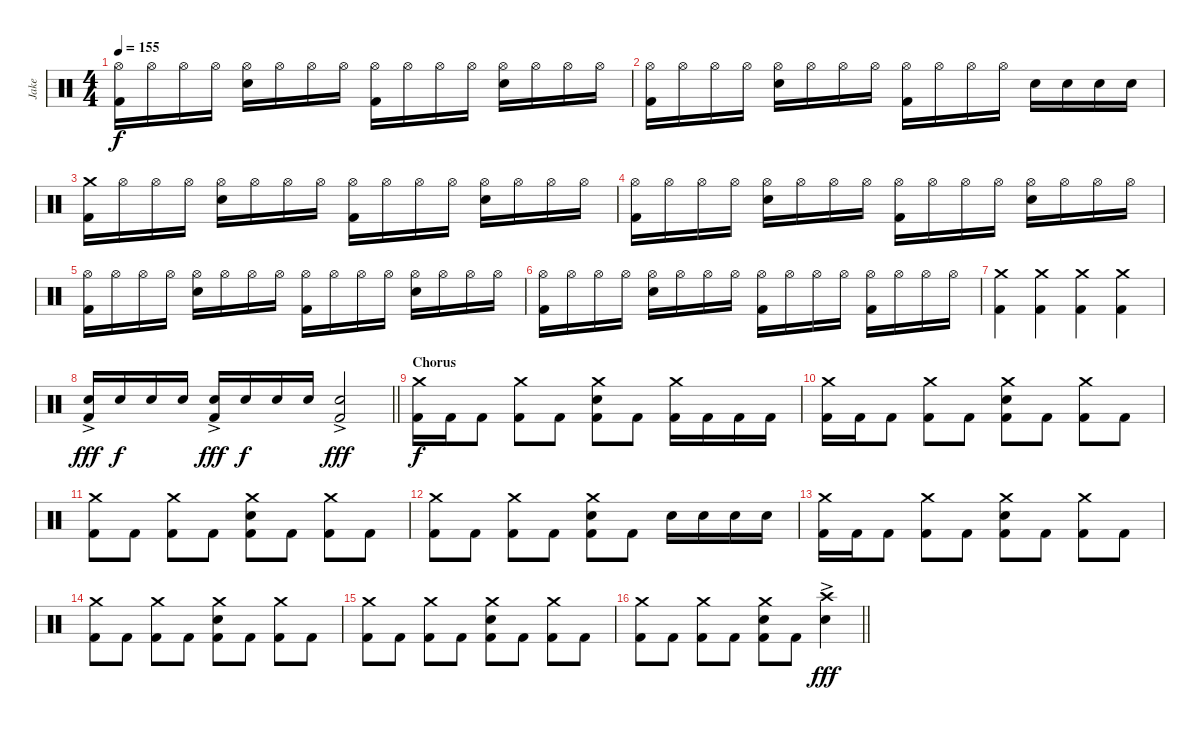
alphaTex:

\track ("Jake" "Jake") {instrument percussion}
\staff {score}
\articulation defaults
\ts (4 4)
\tempo 155
\clef neutral
\ks c
("Hi-Hat (open)" "Kick (hit) 2").16{dy f} "Hi-Hat (open)".16 "Hi-Hat (open)".16 "Hi-Hat (open)".16 ("Hi-Hat (open)" "Electric Snare (hit)").16 "Hi-Hat (open)".16 "Hi-Hat (open)".16 "Hi-Hat (open)".16 ("Hi-Hat (open)" "Kick (hit) 2").16 "Hi-Hat (open)".16 "Hi-Hat (open)".16 "Hi-Hat (open)".16 ("Hi-Hat (open)" "Electric Snare (hit)").16 "Hi-Hat (open)".16 "Hi-Hat (open)".16 "Hi-Hat (open)".16 |
("Hi-Hat (open)" "Kick (hit) 2").16 "Hi-Hat (open)".16 "Hi-Hat (open)".16 "Hi-Hat (open)".16 ("Hi-Hat (open)" "Electric Snare (hit)").16 "Hi-Hat (open)".16 "Hi-Hat (open)".16 "Hi-Hat (open)".16 ("Hi-Hat (open)" "Kick (hit) 2").16 "Hi-Hat (open)".16 "Hi-Hat (open)".16 "Hi-Hat (open)".16 "Electric Snare (hit)".16 "Electric Snare (hit)".16 "Electric Snare (hit)".16 "Electric Snare (hit)".16 |
("Crash medium (hit)" "Kick (hit) 2").16 "Hi-Hat (open)".16 "Hi-Hat (open)".16 "Hi-Hat (open)".16 ("Hi-Hat (open)" "Electric Snare (hit)").16 "Hi-Hat (open)".16 "Hi-Hat (open)".16 "Hi-Hat (open)".16 ("Hi-Hat (open)" "Kick (hit) 2").16 "Hi-Hat (open)".16 "Hi-Hat (open)".16 "Hi-Hat (open)".16 ("Hi-Hat (open)" "Electric Snare (hit)").16 "Hi-Hat (open)".16 "Hi-Hat (open)".16 "Hi-Hat (open)".16 |
("Hi-Hat (open)" "Kick (hit) 2").16 "Hi-Hat (open)".16 "Hi-Hat (open)".16 "Hi-Hat (open)".16 ("Hi-Hat (open)" "Electric Snare (hit)").16 "Hi-Hat (open)".16 "Hi-Hat (open)".16 "Hi-Hat (open)".16 ("Hi-Hat (open)" "Kick (hit) 2").16 "Hi-Hat (open)".16 "Hi-Hat (open)".16 "Hi-Hat (open)".16 ("Hi-Hat (open)" "Electric Snare (hit)").16 "Hi-Hat (open)".16 "Hi-Hat (open)".16 "Hi-Hat (open)".16 |
("Hi-Hat (open)" "Kick (hit) 2").16 "Hi-Hat (open)".16 "Hi-Hat (open)".16 "Hi-Hat (open)".16 ("Hi-Hat (open)" "Electric Snare (hit)").16 "Hi-Hat (open)".16 "Hi-Hat (open)".16 "Hi-Hat (open)".16 ("Hi-Hat (open)" "Kick (hit) 2").16 "Hi-Hat (open)".16 "Hi-Hat (open)".16 "Hi-Hat (open)".16 ("Hi-Hat (open)" "Electric Snare (hit)").16 "Hi-Hat (open)".16 "Hi-Hat (open)".16 "Hi-Hat (open)".16 |
("Hi-Hat (open)" "Kick (hit) 2").16 "Hi-Hat (open)".16 "Hi-Hat (open)".16 "Hi-Hat (open)".16 ("Hi-Hat (open)" "Electric Snare (hit)").16 "Hi-Hat (open)".16 "Hi-Hat (open)".16 "Hi-Hat (open)".16 ("Hi-Hat (open)" "Kick (hit) 2").16 "Hi-Hat (open)".16 "Hi-Hat (open)".16 "Hi-Hat (open)".16 ("Hi-Hat (open)" "Kick (hit) 2").16 "Hi-Hat (open)".16 "Hi-Hat (open)".16 "Hi-Hat (open)".16 |
("Crash medium (hit)" "Kick (hit) 2").4 ("Crash medium (hit)" "Kick (hit) 2").4 ("Crash medium (hit)" "Kick (hit) 2").4 ("Crash medium (hit)" "Kick (hit) 2").4 |
\barLineRight lightlight
("Electric Snare (hit)"{ac} "Kick (hit) 2").16{dy fff} "Electric Snare (hit)".16{dy f} "Electric Snare (hit)".16 "Electric Snare (hit)".16 ("Electric Snare (hit)"{ac} "Kick (hit) 2").16{dy fff} "Electric Snare (hit)".16{dy f} "Electric Snare (hit)".16 "Electric Snare (hit)".16 ("Electric Snare (hit)"{ac} "Kick (hit) 2").2{dy fff} |
\section ("" "Chorus")
("Crash medium (hit)" "Kick (hit) 2").16{dy f} "Kick (hit) 2".16 "Kick (hit) 2".8 ("Crash medium (hit)" "Kick (hit) 2").8 "Kick (hit) 2".8 ("Crash medium (hit)" "Electric Snare (hit)" "Kick (hit) 2").8 "Kick (hit) 2".8 ("Crash medium (hit)" "Kick (hit) 2").16 "Kick (hit) 2".16 "Kick (hit) 2".16 "Kick (hit) 2".16 |
("Crash medium (hit)" "Kick (hit) 2").16 "Kick (hit) 2".16 "Kick (hit) 2".8 ("Crash medium (hit)" "Kick (hit) 2").8 "Kick (hit) 2".8 ("Crash medium (hit)" "Electric Snare (hit)" "Kick (hit) 2").8 "Kick (hit) 2".8 ("Crash medium (hit)" "Kick (hit) 2").8 "Kick (hit) 2".8 |
("Crash medium (hit)" "Kick (hit) 2").8 "Kick (hit) 2".8 ("Crash medium (hit)" "Kick (hit) 2").8 "Kick (hit) 2".8 ("Crash medium (hit)" "Electric Snare (hit)" "Kick (hit) 2").8 "Kick (hit) 2".8 ("Crash medium (hit)" "Kick (hit) 2").8 "Kick (hit) 2".8 |
("Crash medium (hit)" "Kick (hit) 2").8 "Kick (hit) 2".8 ("Crash medium (hit)" "Kick (hit) 2").8 "Kick (hit) 2".8 ("Crash medium (hit)" "Electric Snare (hit)" "Kick (hit) 2").8 "Kick (hit) 2".8 "Electric Snare (hit)".16 "Electric Snare (hit)".16 "Electric Snare (hit)".16 "Electric Snare (hit)".16 |
("Crash medium (hit)" "Kick (hit) 2").16 "Kick (hit) 2".16 "Kick (hit) 2".8 ("Crash medium (hit)" "Kick (hit) 2").8 "Kick (hit) 2".8 ("Crash medium (hit)" "Electric Snare (hit)" "Kick (hit) 2").8 "Kick (hit) 2".8 ("Crash medium (hit)" "Kick (hit) 2").8 "Kick (hit) 2".8 |
("Crash medium (hit)" "Kick (hit) 2").8 "Kick (hit) 2".8 ("Crash medium (hit)" "Kick (hit) 2").8 "Kick (hit) 2".8 ("Crash medium (hit)" "Electric Snare (hit)" "Kick (hit) 2").8 "Kick (hit) 2".8 ("Crash medium (hit)" "Kick (hit) 2").8 "Kick (hit) 2".8 |
("Crash medium (hit)" "Kick (hit) 2").8 "Kick (hit) 2".8 ("Crash medium (hit)" "Kick (hit) 2").8 "Kick (hit) 2".8 ("Crash medium (hit)" "Electric Snare (hit)" "Kick (hit) 2").8 "Kick (hit) 2".8 ("Crash medium (hit)" "Kick (hit) 2").8 "Kick (hit) 2".8 |
\barLineRight lightlight
("Crash medium (hit)" "Kick (hit) 2").8 "Kick (hit) 2".8 ("Crash medium (hit)" "Kick (hit) 2").8 "Kick (hit) 2".8 ("Crash medium (hit)" "Electric Snare (hit)" "Kick (hit) 2").8 "Kick (hit) 2".8 ("Crash high (hit)" "Electric Snare (hit)"{ac}).4{dy fff}
